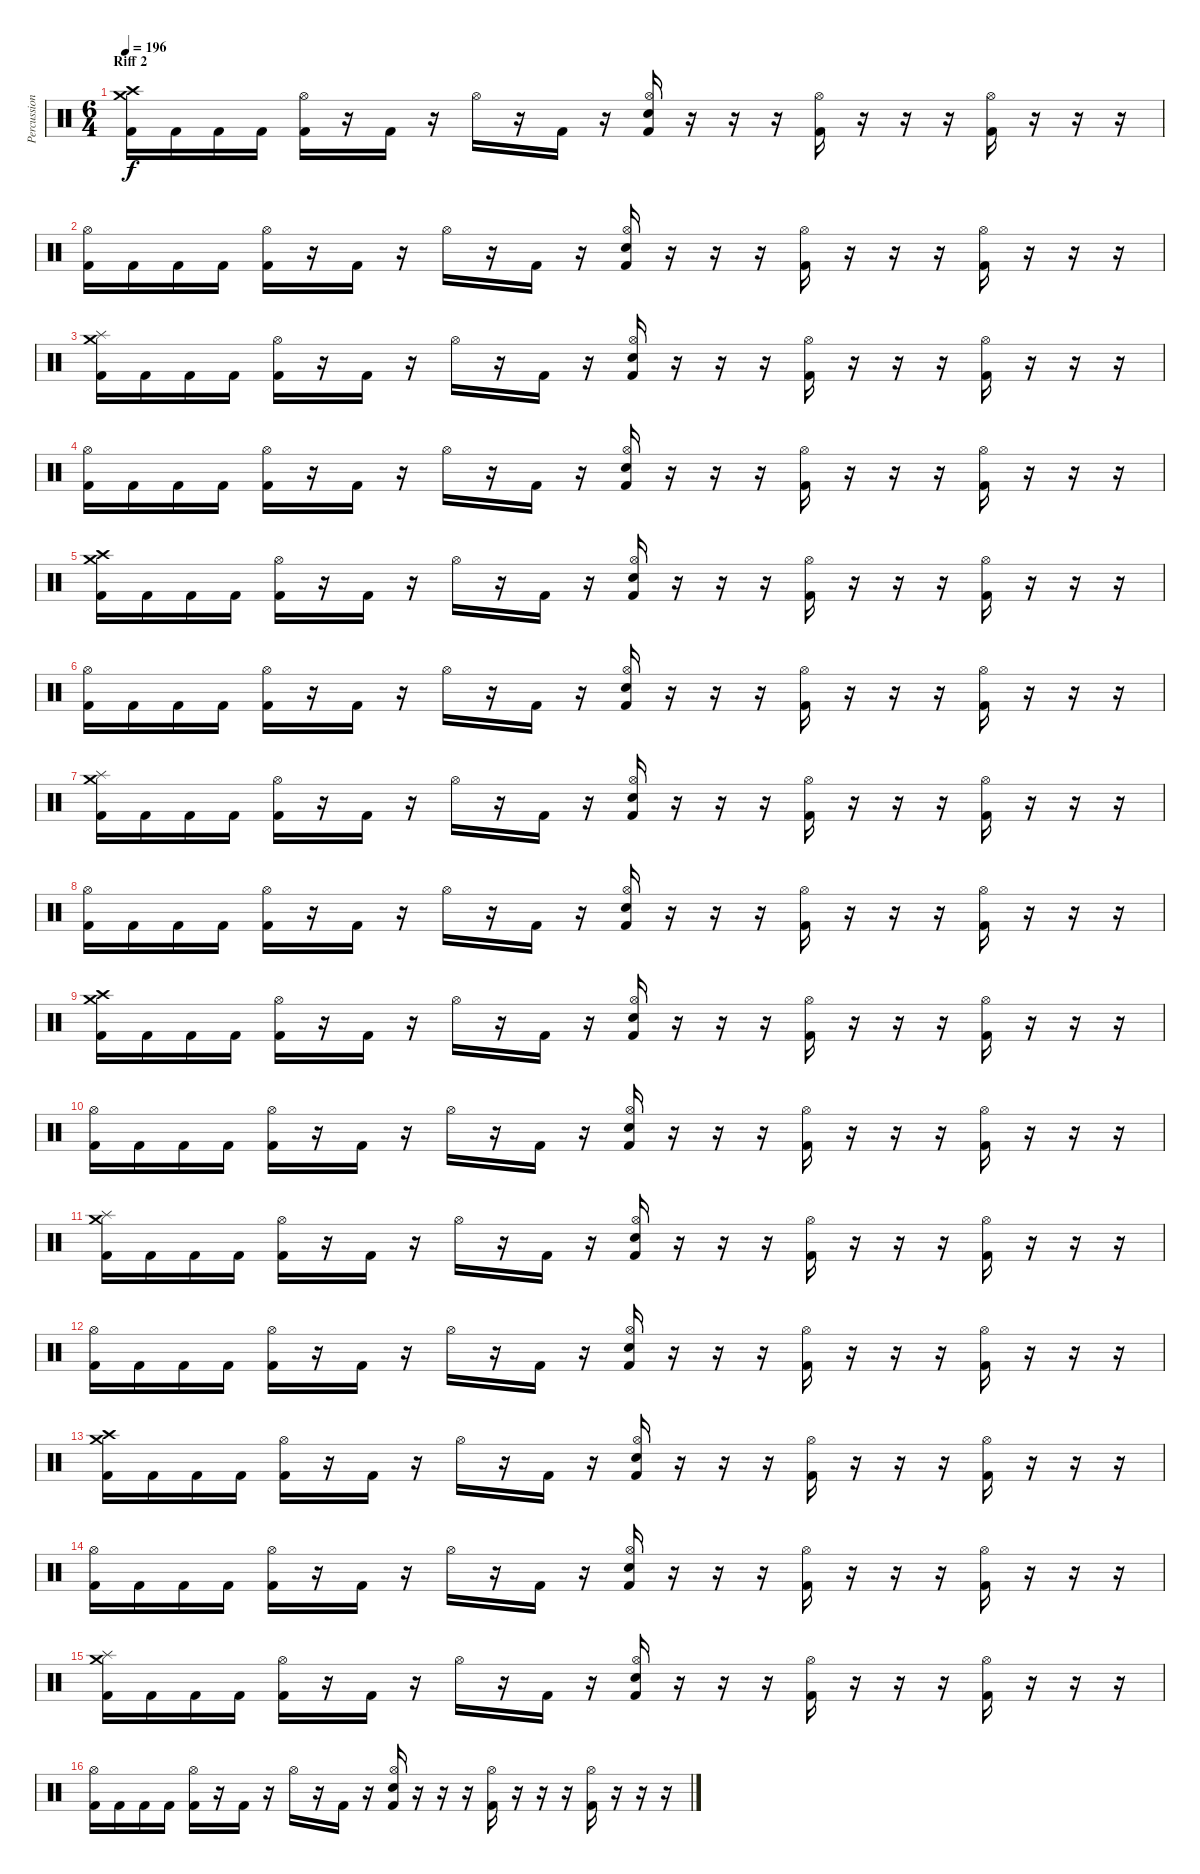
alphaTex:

\track ("Percussion" "Percussion") {instrument percussion}
\staff {score}
\articulation defaults
\ts (6 4)
\section ("" "Riff 2")
\tempo 196
\clef neutral
\ks c
("Crash medium (hit)" "Crash high (hit)" "Kick (hit) 2").16{dy f} "Kick (hit) 2".16 "Kick (hit) 2".16 "Kick (hit) 2".16 ("Hi-Hat (open)" "Kick (hit) 2").16 r.16 "Kick (hit) 2".16 r.16 "Hi-Hat (open)".16 r.16 "Kick (hit) 2".16 r.16 ("Hi-Hat (open)" "Electric Snare (hit)" "Kick (hit) 2").16 r.16 r.16 r.16 ("Hi-Hat (open)" "Kick (hit) 2").16 r.16 r.16 r.16 ("Hi-Hat (open)" "Kick (hit) 2").16 r.16 r.16 r.16 |
("Hi-Hat (open)" "Kick (hit) 2").16 "Kick (hit) 2".16 "Kick (hit) 2".16 "Kick (hit) 2".16 ("Hi-Hat (open)" "Kick (hit) 2").16 r.16 "Kick (hit) 2".16 r.16 "Hi-Hat (open)".16 r.16 "Kick (hit) 2".16 r.16 ("Hi-Hat (open)" "Electric Snare (hit)" "Kick (hit) 2").16 r.16 r.16 r.16 ("Hi-Hat (open)" "Kick (hit) 2").16 r.16 r.16 r.16 ("Hi-Hat (open)" "Kick (hit) 2").16 r.16 r.16 r.16 |
("Crash medium (hit)" "Splash (hit)" "Kick (hit) 2").16 "Kick (hit) 2".16 "Kick (hit) 2".16 "Kick (hit) 2".16 ("Hi-Hat (open)" "Kick (hit) 2").16 r.16 "Kick (hit) 2".16 r.16 "Hi-Hat (open)".16 r.16 "Kick (hit) 2".16 r.16 ("Hi-Hat (open)" "Electric Snare (hit)" "Kick (hit) 2").16 r.16 r.16 r.16 ("Hi-Hat (open)" "Kick (hit) 2").16 r.16 r.16 r.16 ("Hi-Hat (open)" "Kick (hit) 2").16 r.16 r.16 r.16 |
("Hi-Hat (open)" "Kick (hit) 2").16 "Kick (hit) 2".16 "Kick (hit) 2".16 "Kick (hit) 2".16 ("Hi-Hat (open)" "Kick (hit) 2").16 r.16 "Kick (hit) 2".16 r.16 "Hi-Hat (open)".16 r.16 "Kick (hit) 2".16 r.16 ("Hi-Hat (open)" "Electric Snare (hit)" "Kick (hit) 2").16 r.16 r.16 r.16 ("Hi-Hat (open)" "Kick (hit) 2").16 r.16 r.16 r.16 ("Hi-Hat (open)" "Kick (hit) 2").16 r.16 r.16 r.16 |
("Crash medium (hit)" "Crash high (hit)" "Kick (hit) 2").16 "Kick (hit) 2".16 "Kick (hit) 2".16 "Kick (hit) 2".16 ("Hi-Hat (open)" "Kick (hit) 2").16 r.16 "Kick (hit) 2".16 r.16 "Hi-Hat (open)".16 r.16 "Kick (hit) 2".16 r.16 ("Hi-Hat (open)" "Electric Snare (hit)" "Kick (hit) 2").16 r.16 r.16 r.16 ("Hi-Hat (open)" "Kick (hit) 2").16 r.16 r.16 r.16 ("Hi-Hat (open)" "Kick (hit) 2").16 r.16 r.16 r.16 |
("Hi-Hat (open)" "Kick (hit) 2").16 "Kick (hit) 2".16 "Kick (hit) 2".16 "Kick (hit) 2".16 ("Hi-Hat (open)" "Kick (hit) 2").16 r.16 "Kick (hit) 2".16 r.16 "Hi-Hat (open)".16 r.16 "Kick (hit) 2".16 r.16 ("Hi-Hat (open)" "Electric Snare (hit)" "Kick (hit) 2").16 r.16 r.16 r.16 ("Hi-Hat (open)" "Kick (hit) 2").16 r.16 r.16 r.16 ("Hi-Hat (open)" "Kick (hit) 2").16 r.16 r.16 r.16 |
("Crash medium (hit)" "Splash (hit)" "Kick (hit) 2").16 "Kick (hit) 2".16 "Kick (hit) 2".16 "Kick (hit) 2".16 ("Hi-Hat (open)" "Kick (hit) 2").16 r.16 "Kick (hit) 2".16 r.16 "Hi-Hat (open)".16 r.16 "Kick (hit) 2".16 r.16 ("Hi-Hat (open)" "Electric Snare (hit)" "Kick (hit) 2").16 r.16 r.16 r.16 ("Hi-Hat (open)" "Kick (hit) 2").16 r.16 r.16 r.16 ("Hi-Hat (open)" "Kick (hit) 2").16 r.16 r.16 r.16 |
("Hi-Hat (open)" "Kick (hit) 2").16 "Kick (hit) 2".16 "Kick (hit) 2".16 "Kick (hit) 2".16 ("Hi-Hat (open)" "Kick (hit) 2").16 r.16 "Kick (hit) 2".16 r.16 "Hi-Hat (open)".16 r.16 "Kick (hit) 2".16 r.16 ("Hi-Hat (open)" "Electric Snare (hit)" "Kick (hit) 2").16 r.16 r.16 r.16 ("Hi-Hat (open)" "Kick (hit) 2").16 r.16 r.16 r.16 ("Hi-Hat (open)" "Kick (hit) 2").16 r.16 r.16 r.16 |
("Crash medium (hit)" "Crash high (hit)" "Kick (hit) 2").16 "Kick (hit) 2".16 "Kick (hit) 2".16 "Kick (hit) 2".16 ("Hi-Hat (open)" "Kick (hit) 2").16 r.16 "Kick (hit) 2".16 r.16 "Hi-Hat (open)".16 r.16 "Kick (hit) 2".16 r.16 ("Hi-Hat (open)" "Electric Snare (hit)" "Kick (hit) 2").16 r.16 r.16 r.16 ("Hi-Hat (open)" "Kick (hit) 2").16 r.16 r.16 r.16 ("Hi-Hat (open)" "Kick (hit) 2").16 r.16 r.16 r.16 |
("Hi-Hat (open)" "Kick (hit) 2").16 "Kick (hit) 2".16 "Kick (hit) 2".16 "Kick (hit) 2".16 ("Hi-Hat (open)" "Kick (hit) 2").16 r.16 "Kick (hit) 2".16 r.16 "Hi-Hat (open)".16 r.16 "Kick (hit) 2".16 r.16 ("Hi-Hat (open)" "Electric Snare (hit)" "Kick (hit) 2").16 r.16 r.16 r.16 ("Hi-Hat (open)" "Kick (hit) 2").16 r.16 r.16 r.16 ("Hi-Hat (open)" "Kick (hit) 2").16 r.16 r.16 r.16 |
("Crash medium (hit)" "Splash (hit)" "Kick (hit) 2").16 "Kick (hit) 2".16 "Kick (hit) 2".16 "Kick (hit) 2".16 ("Hi-Hat (open)" "Kick (hit) 2").16 r.16 "Kick (hit) 2".16 r.16 "Hi-Hat (open)".16 r.16 "Kick (hit) 2".16 r.16 ("Hi-Hat (open)" "Electric Snare (hit)" "Kick (hit) 2").16 r.16 r.16 r.16 ("Hi-Hat (open)" "Kick (hit) 2").16 r.16 r.16 r.16 ("Hi-Hat (open)" "Kick (hit) 2").16 r.16 r.16 r.16 |
("Hi-Hat (open)" "Kick (hit) 2").16 "Kick (hit) 2".16 "Kick (hit) 2".16 "Kick (hit) 2".16 ("Hi-Hat (open)" "Kick (hit) 2").16 r.16 "Kick (hit) 2".16 r.16 "Hi-Hat (open)".16 r.16 "Kick (hit) 2".16 r.16 ("Hi-Hat (open)" "Electric Snare (hit)" "Kick (hit) 2").16 r.16 r.16 r.16 ("Hi-Hat (open)" "Kick (hit) 2").16 r.16 r.16 r.16 ("Hi-Hat (open)" "Kick (hit) 2").16 r.16 r.16 r.16 |
("Crash medium (hit)" "Crash high (hit)" "Kick (hit) 2").16 "Kick (hit) 2".16 "Kick (hit) 2".16 "Kick (hit) 2".16 ("Hi-Hat (open)" "Kick (hit) 2").16 r.16 "Kick (hit) 2".16 r.16 "Hi-Hat (open)".16 r.16 "Kick (hit) 2".16 r.16 ("Hi-Hat (open)" "Electric Snare (hit)" "Kick (hit) 2").16 r.16 r.16 r.16 ("Hi-Hat (open)" "Kick (hit) 2").16 r.16 r.16 r.16 ("Hi-Hat (open)" "Kick (hit) 2").16 r.16 r.16 r.16 |
("Hi-Hat (open)" "Kick (hit) 2").16 "Kick (hit) 2".16 "Kick (hit) 2".16 "Kick (hit) 2".16 ("Hi-Hat (open)" "Kick (hit) 2").16 r.16 "Kick (hit) 2".16 r.16 "Hi-Hat (open)".16 r.16 "Kick (hit) 2".16 r.16 ("Hi-Hat (open)" "Electric Snare (hit)" "Kick (hit) 2").16 r.16 r.16 r.16 ("Hi-Hat (open)" "Kick (hit) 2").16 r.16 r.16 r.16 ("Hi-Hat (open)" "Kick (hit) 2").16 r.16 r.16 r.16 |
("Crash medium (hit)" "Splash (hit)" "Kick (hit) 2").16 "Kick (hit) 2".16 "Kick (hit) 2".16 "Kick (hit) 2".16 ("Hi-Hat (open)" "Kick (hit) 2").16 r.16 "Kick (hit) 2".16 r.16 "Hi-Hat (open)".16 r.16 "Kick (hit) 2".16 r.16 ("Hi-Hat (open)" "Electric Snare (hit)" "Kick (hit) 2").16 r.16 r.16 r.16 ("Hi-Hat (open)" "Kick (hit) 2").16 r.16 r.16 r.16 ("Hi-Hat (open)" "Kick (hit) 2").16 r.16 r.16 r.16 |
("Hi-Hat (open)" "Kick (hit) 2").16 "Kick (hit) 2".16 "Kick (hit) 2".16 "Kick (hit) 2".16 ("Hi-Hat (open)" "Kick (hit) 2").16 r.16 "Kick (hit) 2".16 r.16 "Hi-Hat (open)".16 r.16 "Kick (hit) 2".16 r.16 ("Hi-Hat (open)" "Electric Snare (hit)" "Kick (hit) 2").16 r.16 r.16 r.16 ("Hi-Hat (open)" "Kick (hit) 2").16 r.16 r.16 r.16 ("Hi-Hat (open)" "Kick (hit) 2").16 r.16 r.16 r.16
